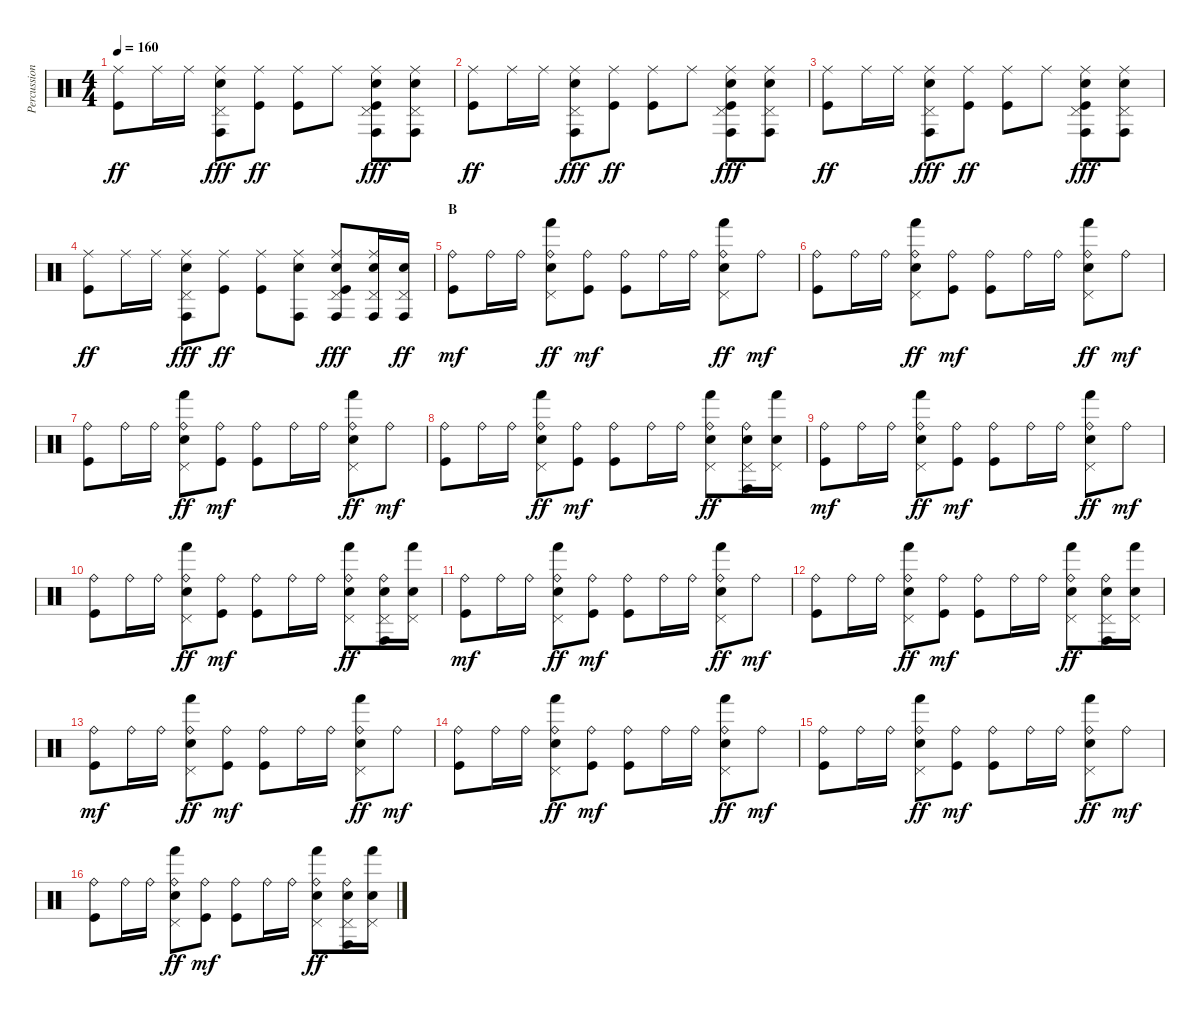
\track ("Percussion" "Percussion") {instrument percussion}
\staff {score}
\articulation defaults
\ts (4 4)
\tempo 160
\clef neutral
\ks c
("Ride (middle)" "Kick (hit)").8{dy ff} "Ride (middle)".16 "Ride (middle)".16 ("Ride (middle)" "Pedal Hi-Hat (hit)" "Conga high (hit)" "Electric Snare (hit)").8{dy fff} ("Ride (middle)" "Kick (hit)").8{dy ff} ("Ride (middle)" "Kick (hit)").8 "Ride (middle)".8 ("Ride (middle)" "Pedal Hi-Hat (hit)" "Conga high (hit)" "Electric Snare (hit)" "Kick (hit)").8{dy fff} ("Ride (middle)" "Pedal Hi-Hat (hit)" "Conga high (hit)" "Electric Snare (hit)").8 |
("Ride (middle)" "Kick (hit)").8{dy ff} "Ride (middle)".16 "Ride (middle)".16 ("Ride (middle)" "Pedal Hi-Hat (hit)" "Conga high (hit)" "Electric Snare (hit)").8{dy fff} ("Ride (middle)" "Kick (hit)").8{dy ff} ("Ride (middle)" "Kick (hit)").8 "Ride (middle)".8 ("Ride (middle)" "Pedal Hi-Hat (hit)" "Conga high (hit)" "Electric Snare (hit)" "Kick (hit)").8{dy fff} ("Ride (middle)" "Pedal Hi-Hat (hit)" "Conga high (hit)" "Electric Snare (hit)").8 |
("Ride (middle)" "Kick (hit)").8{dy ff} "Ride (middle)".16 "Ride (middle)".16 ("Ride (middle)" "Pedal Hi-Hat (hit)" "Conga high (hit)" "Electric Snare (hit)").8{dy fff} ("Ride (middle)" "Kick (hit)").8{dy ff} ("Ride (middle)" "Kick (hit)").8 "Ride (middle)".8 ("Ride (middle)" "Pedal Hi-Hat (hit)" "Conga high (hit)" "Electric Snare (hit)" "Kick (hit)").8{dy fff} ("Ride (middle)" "Pedal Hi-Hat (hit)" "Conga high (hit)" "Electric Snare (hit)").8 |
("Ride (middle)" "Kick (hit)").8{dy ff} "Ride (middle)".16 "Ride (middle)".16 ("Ride (middle)" "Pedal Hi-Hat (hit)" "Conga high (hit)" "Electric Snare (hit)").8{dy fff} ("Ride (middle)" "Kick (hit)").8{dy ff} ("Ride (middle)" "Kick (hit)").8 ("Ride (middle)" "Conga high (hit)" "Electric Snare (hit)").8 ("Ride (middle)" "Pedal Hi-Hat (hit)" "Conga high (hit)" "Electric Snare (hit)" "Kick (hit)").8{dy fff} ("Ride (middle)" "Pedal Hi-Hat (hit)" "Conga high (hit)" "Electric Snare (hit)").16 ("Pedal Hi-Hat (hit)" "Conga high (hit)" "Electric Snare (hit)").16{dy ff} |
\section ("" "B")
("Ride (bell)" "Kick (hit)").8{dy mf} "Ride (bell)".16 "Ride (bell)".16 ("Ride (bell)" "Pedal Hi-Hat (hit)" "Hand (hit)" "Electric Snare (hit)").8{dy ff} ("Ride (bell)" "Kick (hit)").8{dy mf} ("Ride (bell)" "Kick (hit)").8 "Ride (bell)".16 "Ride (bell)".16 ("Ride (bell)" "Pedal Hi-Hat (hit)" "Hand (hit)" "Electric Snare (hit)").8{dy ff} "Ride (bell)".8{dy mf} |
("Ride (bell)" "Kick (hit)").8 "Ride (bell)".16 "Ride (bell)".16 ("Ride (bell)" "Pedal Hi-Hat (hit)" "Hand (hit)" "Electric Snare (hit)").8{dy ff} ("Ride (bell)" "Kick (hit)").8{dy mf} ("Ride (bell)" "Kick (hit)").8 "Ride (bell)".16 "Ride (bell)".16 ("Ride (bell)" "Pedal Hi-Hat (hit)" "Hand (hit)" "Electric Snare (hit)").8{dy ff} "Ride (bell)".8{dy mf} |
("Ride (bell)" "Kick (hit)").8 "Ride (bell)".16 "Ride (bell)".16 ("Ride (bell)" "Pedal Hi-Hat (hit)" "Hand (hit)" "Electric Snare (hit)").8{dy ff} ("Ride (bell)" "Kick (hit)").8{dy mf} ("Ride (bell)" "Kick (hit)").8 "Ride (bell)".16 "Ride (bell)".16 ("Ride (bell)" "Pedal Hi-Hat (hit)" "Hand (hit)" "Electric Snare (hit)").8{dy ff} "Ride (bell)".8{dy mf} |
("Ride (bell)" "Kick (hit)").8 "Ride (bell)".16 "Ride (bell)".16 ("Ride (bell)" "Pedal Hi-Hat (hit)" "Hand (hit)" "Electric Snare (hit)").8{dy ff} ("Ride (bell)" "Kick (hit)").8{dy mf} ("Ride (bell)" "Kick (hit)").8 "Ride (bell)".16 "Ride (bell)".16 ("Ride (bell)" "Pedal Hi-Hat (hit)" "Hand (hit)" "Electric Snare (hit)").8{dy ff} ("Ride (bell)" "Pedal Hi-Hat (hit)" "Conga high (hit)" "Electric Snare (hit)").16 ("Pedal Hi-Hat (hit)" "Hand (hit)" "Electric Snare (hit)").16 |
("Ride (bell)" "Kick (hit)").8{dy mf} "Ride (bell)".16 "Ride (bell)".16 ("Ride (bell)" "Pedal Hi-Hat (hit)" "Hand (hit)" "Electric Snare (hit)").8{dy ff} ("Ride (bell)" "Kick (hit)").8{dy mf} ("Ride (bell)" "Kick (hit)").8 "Ride (bell)".16 "Ride (bell)".16 ("Ride (bell)" "Pedal Hi-Hat (hit)" "Hand (hit)" "Electric Snare (hit)").8{dy ff} "Ride (bell)".8{dy mf} |
("Ride (bell)" "Kick (hit)").8 "Ride (bell)".16 "Ride (bell)".16 ("Ride (bell)" "Pedal Hi-Hat (hit)" "Hand (hit)" "Electric Snare (hit)").8{dy ff} ("Ride (bell)" "Kick (hit)").8{dy mf} ("Ride (bell)" "Kick (hit)").8 "Ride (bell)".16 "Ride (bell)".16 ("Ride (bell)" "Pedal Hi-Hat (hit)" "Hand (hit)" "Electric Snare (hit)").8{dy ff} ("Ride (bell)" "Pedal Hi-Hat (hit)" "Conga high (hit)" "Electric Snare (hit)").16 ("Pedal Hi-Hat (hit)" "Hand (hit)" "Electric Snare (hit)").16 |
("Ride (bell)" "Kick (hit)").8{dy mf} "Ride (bell)".16 "Ride (bell)".16 ("Ride (bell)" "Pedal Hi-Hat (hit)" "Hand (hit)" "Electric Snare (hit)").8{dy ff} ("Ride (bell)" "Kick (hit)").8{dy mf} ("Ride (bell)" "Kick (hit)").8 "Ride (bell)".16 "Ride (bell)".16 ("Ride (bell)" "Pedal Hi-Hat (hit)" "Hand (hit)" "Electric Snare (hit)").8{dy ff} "Ride (bell)".8{dy mf} |
("Ride (bell)" "Kick (hit)").8 "Ride (bell)".16 "Ride (bell)".16 ("Ride (bell)" "Pedal Hi-Hat (hit)" "Hand (hit)" "Electric Snare (hit)").8{dy ff} ("Ride (bell)" "Kick (hit)").8{dy mf} ("Ride (bell)" "Kick (hit)").8 "Ride (bell)".16 "Ride (bell)".16 ("Ride (bell)" "Pedal Hi-Hat (hit)" "Hand (hit)" "Electric Snare (hit)").8{dy ff} ("Ride (bell)" "Pedal Hi-Hat (hit)" "Conga high (hit)" "Electric Snare (hit)").16 ("Pedal Hi-Hat (hit)" "Hand (hit)" "Electric Snare (hit)").16 |
("Ride (bell)" "Kick (hit)").8{dy mf} "Ride (bell)".16 "Ride (bell)".16 ("Ride (bell)" "Pedal Hi-Hat (hit)" "Hand (hit)" "Electric Snare (hit)").8{dy ff} ("Ride (bell)" "Kick (hit)").8{dy mf} ("Ride (bell)" "Kick (hit)").8 "Ride (bell)".16 "Ride (bell)".16 ("Ride (bell)" "Pedal Hi-Hat (hit)" "Hand (hit)" "Electric Snare (hit)").8{dy ff} "Ride (bell)".8{dy mf} |
("Ride (bell)" "Kick (hit)").8 "Ride (bell)".16 "Ride (bell)".16 ("Ride (bell)" "Pedal Hi-Hat (hit)" "Hand (hit)" "Electric Snare (hit)").8{dy ff} ("Ride (bell)" "Kick (hit)").8{dy mf} ("Ride (bell)" "Kick (hit)").8 "Ride (bell)".16 "Ride (bell)".16 ("Ride (bell)" "Pedal Hi-Hat (hit)" "Hand (hit)" "Electric Snare (hit)").8{dy ff} "Ride (bell)".8{dy mf} |
("Ride (bell)" "Kick (hit)").8 "Ride (bell)".16 "Ride (bell)".16 ("Ride (bell)" "Pedal Hi-Hat (hit)" "Hand (hit)" "Electric Snare (hit)").8{dy ff} ("Ride (bell)" "Kick (hit)").8{dy mf} ("Ride (bell)" "Kick (hit)").8 "Ride (bell)".16 "Ride (bell)".16 ("Ride (bell)" "Pedal Hi-Hat (hit)" "Hand (hit)" "Electric Snare (hit)").8{dy ff} "Ride (bell)".8{dy mf} |
("Ride (bell)" "Kick (hit)").8 "Ride (bell)".16 "Ride (bell)".16 ("Ride (bell)" "Pedal Hi-Hat (hit)" "Hand (hit)" "Electric Snare (hit)").8{dy ff} ("Ride (bell)" "Kick (hit)").8{dy mf} ("Ride (bell)" "Kick (hit)").8 "Ride (bell)".16 "Ride (bell)".16 ("Ride (bell)" "Pedal Hi-Hat (hit)" "Hand (hit)" "Electric Snare (hit)").8{dy ff} ("Ride (bell)" "Pedal Hi-Hat (hit)" "Conga high (hit)" "Electric Snare (hit)").16 ("Pedal Hi-Hat (hit)" "Hand (hit)" "Electric Snare (hit)").16
